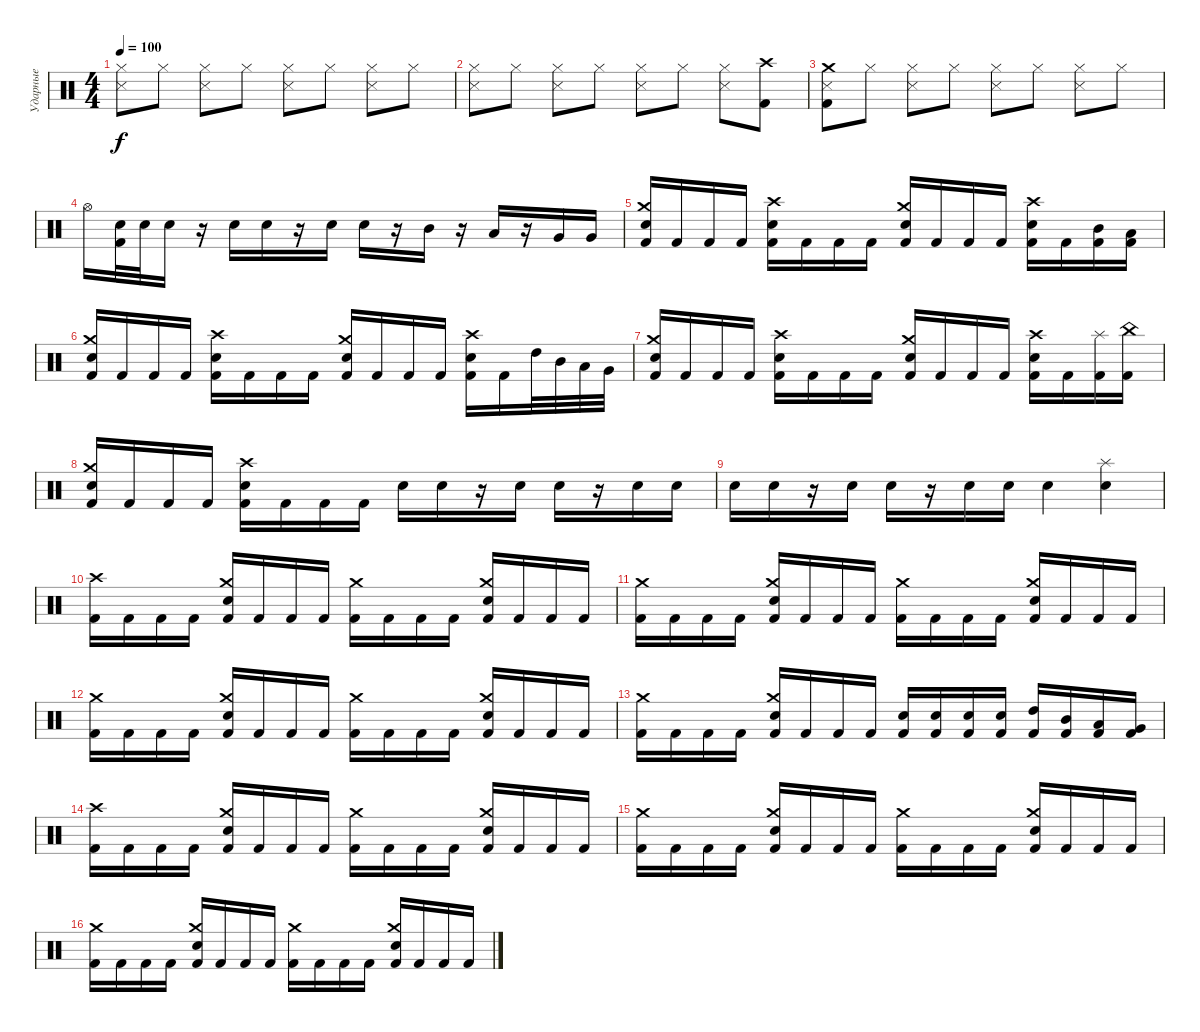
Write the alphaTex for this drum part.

\track ("Ударные" "Ударные") {instrument percussion}
\staff {score}
\articulation defaults
\ts (4 4)
\tempo 100
\clef neutral
\ks c
("Hi-Hat (closed)" "Metronome (hit)").8{dy f} "Hi-Hat (closed)".8 ("Hi-Hat (closed)" "Metronome (hit)").8 "Hi-Hat (closed)".8 ("Hi-Hat (closed)" "Metronome (hit)").8 "Hi-Hat (closed)".8 ("Hi-Hat (closed)" "Metronome (hit)").8 "Hi-Hat (closed)".8 |
("Hi-Hat (closed)" "Metronome (hit)").8 "Hi-Hat (closed)".8 ("Hi-Hat (closed)" "Metronome (hit)").8 "Hi-Hat (closed)".8 ("Hi-Hat (closed)" "Metronome (hit)").8 "Hi-Hat (closed)".8 ("Hi-Hat (closed)" "Metronome (hit)").8 ("Crash high (hit)" "Kick (hit) 2").8 |
("Crash medium (hit)" "Metronome (hit)" "Kick (hit) 2").8 "Hi-Hat (closed)".8 ("Hi-Hat (closed)" "Metronome (hit)").8 "Hi-Hat (closed)".8 ("Hi-Hat (closed)" "Metronome (hit)").8 "Hi-Hat (closed)".8 ("Hi-Hat (closed)" "Metronome (hit)").8 "Hi-Hat (closed)".8 |
"Hi-Hat (open)".16 ("Electric Snare (hit)" "Kick (hit) 2").32 "Electric Snare (hit)".32 "Electric Snare (hit)".16 r.16 "Electric Snare (hit)".16 "Electric Snare (hit)".16 r.16 "Electric Snare (hit)".16 "Electric Snare (hit)".16 r.16 "Mid Tom (hit)".16 r.16 "Low Tom (hit)".16 r.16 "Very Low Tom (hit)".16 "Very Low Tom (hit)".16 |
("Crash medium (hit)" "Electric Snare (hit)" "Kick (hit) 2").16 "Kick (hit) 2".16 "Kick (hit) 2".16 "Kick (hit) 2".16 ("Crash high (hit)" "Electric Snare (hit)" "Kick (hit) 2").16 "Kick (hit) 2".16 "Kick (hit) 2".16 "Kick (hit) 2".16 ("Crash medium (hit)" "Electric Snare (hit)" "Kick (hit) 2").16 "Kick (hit) 2".16 "Kick (hit) 2".16 "Kick (hit) 2".16 ("Crash high (hit)" "Electric Snare (hit)" "Kick (hit) 2").16 "Kick (hit) 2".16 ("Mid Tom (hit)" "Kick (hit) 2").16 ("Low Tom (hit)" "Kick (hit) 2").16 |
("Crash medium (hit)" "Electric Snare (hit)" "Kick (hit) 2").16 "Kick (hit) 2".16 "Kick (hit) 2".16 "Kick (hit) 2".16 ("Crash high (hit)" "Electric Snare (hit)" "Kick (hit) 2").16 "Kick (hit) 2".16 "Kick (hit) 2".16 "Kick (hit) 2".16 ("Crash medium (hit)" "Electric Snare (hit)" "Kick (hit) 2").16 "Kick (hit) 2".16 "Kick (hit) 2".16 "Kick (hit) 2".16 ("Crash high (hit)" "Electric Snare (hit)" "Kick (hit) 2").16 "Kick (hit) 2".16 "High Tom (hit)".32 "Mid Tom (hit)".32 "Low Tom (hit)".32 "Very Low Tom (hit)".32 |
("Crash medium (hit)" "Electric Snare (hit)" "Kick (hit) 2").16 "Kick (hit) 2".16 "Kick (hit) 2".16 "Kick (hit) 2".16 ("Crash high (hit)" "Electric Snare (hit)" "Kick (hit) 2").16 "Kick (hit) 2".16 "Kick (hit) 2".16 "Kick (hit) 2".16 ("Crash medium (hit)" "Electric Snare (hit)" "Kick (hit) 2").16 "Kick (hit) 2".16 "Kick (hit) 2".16 "Kick (hit) 2".16 ("Crash high (hit)" "Electric Snare (hit)" "Kick (hit) 2").16 "Kick (hit) 2".16 ("Splash (hit)" "Kick (hit) 2").16 ("China (hit)" "Kick (hit) 2").16 |
("Crash medium (hit)" "Electric Snare (hit)" "Kick (hit) 2").16 "Kick (hit) 2".16 "Kick (hit) 2".16 "Kick (hit) 2".16 ("Crash high (hit)" "Electric Snare (hit)" "Kick (hit) 2").16 "Kick (hit) 2".16 "Kick (hit) 2".16 "Kick (hit) 2".16 "Electric Snare (hit)".16 "Electric Snare (hit)".16 r.16 "Electric Snare (hit)".16 "Electric Snare (hit)".16 r.16 "Electric Snare (hit)".16 "Electric Snare (hit)".16 |
"Electric Snare (hit)".16 "Electric Snare (hit)".16 r.16 "Electric Snare (hit)".16 "Electric Snare (hit)".16 r.16 "Electric Snare (hit)".16 "Electric Snare (hit)".16 "Electric Snare (hit)".4 ("Splash (hit)" "Electric Snare (hit)").4 |
("Crash high (hit)" "Kick (hit) 2").16 "Kick (hit) 2".16 "Kick (hit) 2".16 "Kick (hit) 2".16 ("Crash medium (hit)" "Electric Snare (hit)" "Kick (hit) 2").16 "Kick (hit) 2".16 "Kick (hit) 2".16 "Kick (hit) 2".16 ("Crash medium (hit)" "Kick (hit) 2").16 "Kick (hit) 2".16 "Kick (hit) 2".16 "Kick (hit) 2".16 ("Crash medium (hit)" "Electric Snare (hit)" "Kick (hit) 2").16 "Kick (hit) 2".16 "Kick (hit) 2".16 "Kick (hit) 2".16 |
("Crash medium (hit)" "Kick (hit) 2").16 "Kick (hit) 2".16 "Kick (hit) 2".16 "Kick (hit) 2".16 ("Crash medium (hit)" "Electric Snare (hit)" "Kick (hit) 2").16 "Kick (hit) 2".16 "Kick (hit) 2".16 "Kick (hit) 2".16 ("Crash medium (hit)" "Kick (hit) 2").16 "Kick (hit) 2".16 "Kick (hit) 2".16 "Kick (hit) 2".16 ("Crash medium (hit)" "Electric Snare (hit)" "Kick (hit) 2").16 "Kick (hit) 2".16 "Kick (hit) 2".16 "Kick (hit) 2".16 |
("Crash medium (hit)" "Kick (hit) 2").16 "Kick (hit) 2".16 "Kick (hit) 2".16 "Kick (hit) 2".16 ("Crash medium (hit)" "Electric Snare (hit)" "Kick (hit) 2").16 "Kick (hit) 2".16 "Kick (hit) 2".16 "Kick (hit) 2".16 ("Crash medium (hit)" "Kick (hit) 2").16 "Kick (hit) 2".16 "Kick (hit) 2".16 "Kick (hit) 2".16 ("Crash medium (hit)" "Electric Snare (hit)" "Kick (hit) 2").16 "Kick (hit) 2".16 "Kick (hit) 2".16 "Kick (hit) 2".16 |
("Crash medium (hit)" "Kick (hit) 2").16 "Kick (hit) 2".16 "Kick (hit) 2".16 "Kick (hit) 2".16 ("Crash medium (hit)" "Electric Snare (hit)" "Kick (hit) 2").16 "Kick (hit) 2".16 "Kick (hit) 2".16 "Kick (hit) 2".16 ("Electric Snare (hit)" "Kick (hit) 2").16 ("Electric Snare (hit)" "Kick (hit) 2").16 ("Electric Snare (hit)" "Kick (hit) 2").16 ("Electric Snare (hit)" "Kick (hit) 2").16 ("High Tom (hit)" "Kick (hit) 2").16 ("Mid Tom (hit)" "Kick (hit) 2").16 ("Low Tom (hit)" "Kick (hit) 2").16 ("Very Low Tom (hit)" "Kick (hit) 2").16 |
("Crash high (hit)" "Kick (hit) 2").16 "Kick (hit) 2".16 "Kick (hit) 2".16 "Kick (hit) 2".16 ("Crash medium (hit)" "Electric Snare (hit)" "Kick (hit) 2").16 "Kick (hit) 2".16 "Kick (hit) 2".16 "Kick (hit) 2".16 ("Crash medium (hit)" "Kick (hit) 2").16 "Kick (hit) 2".16 "Kick (hit) 2".16 "Kick (hit) 2".16 ("Crash medium (hit)" "Electric Snare (hit)" "Kick (hit) 2").16 "Kick (hit) 2".16 "Kick (hit) 2".16 "Kick (hit) 2".16 |
("Crash medium (hit)" "Kick (hit) 2").16 "Kick (hit) 2".16 "Kick (hit) 2".16 "Kick (hit) 2".16 ("Crash medium (hit)" "Electric Snare (hit)" "Kick (hit) 2").16 "Kick (hit) 2".16 "Kick (hit) 2".16 "Kick (hit) 2".16 ("Crash medium (hit)" "Kick (hit) 2").16 "Kick (hit) 2".16 "Kick (hit) 2".16 "Kick (hit) 2".16 ("Crash medium (hit)" "Electric Snare (hit)" "Kick (hit) 2").16 "Kick (hit) 2".16 "Kick (hit) 2".16 "Kick (hit) 2".16 |
("Crash medium (hit)" "Kick (hit) 2").16 "Kick (hit) 2".16 "Kick (hit) 2".16 "Kick (hit) 2".16 ("Crash medium (hit)" "Electric Snare (hit)" "Kick (hit) 2").16 "Kick (hit) 2".16 "Kick (hit) 2".16 "Kick (hit) 2".16 ("Crash medium (hit)" "Kick (hit) 2").16 "Kick (hit) 2".16 "Kick (hit) 2".16 "Kick (hit) 2".16 ("Crash medium (hit)" "Electric Snare (hit)" "Kick (hit) 2").16 "Kick (hit) 2".16 "Kick (hit) 2".16 "Kick (hit) 2".16
